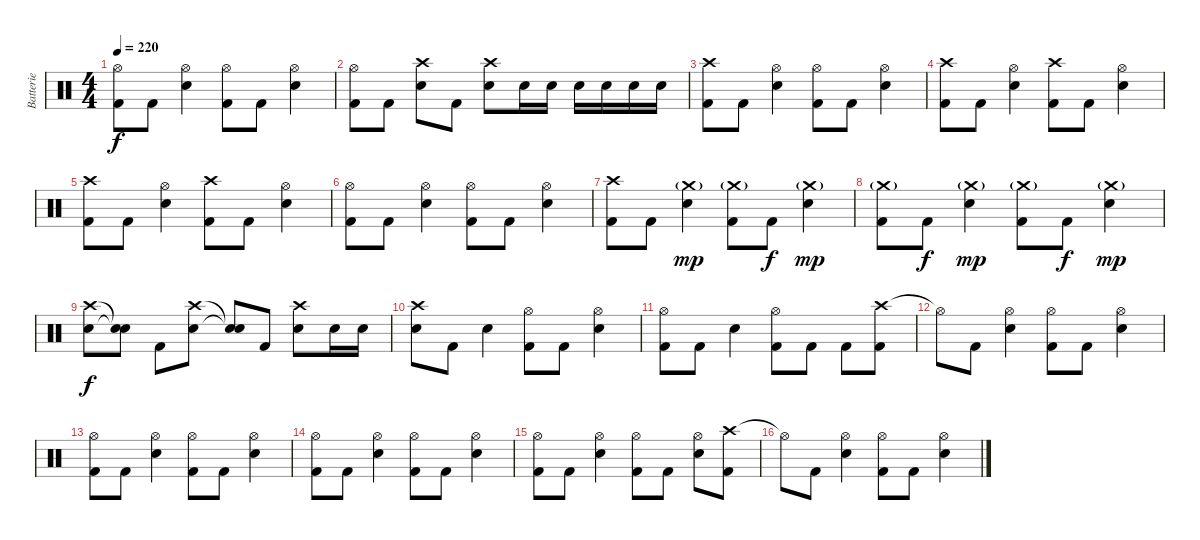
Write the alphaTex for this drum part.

\track ("Batterie" "Batterie") {instrument percussion}
\staff {score}
\articulation defaults
\ts (4 4)
\tempo 220
\clef neutral
\ks c
("Hi-Hat (open)" "Kick (hit) 2").8{dy f} "Kick (hit) 2".8 ("Hi-Hat (open)" "Electric Snare (hit)").4 ("Hi-Hat (open)" "Kick (hit) 2").8 "Kick (hit) 2".8 ("Hi-Hat (open)" "Electric Snare (hit)").4 |
("Hi-Hat (open)" "Kick (hit) 2").8 "Kick (hit) 2".8 ("Crash high (hit)" "Electric Snare (hit)").8 "Kick (hit) 2".8 ("Crash high (hit)" "Electric Snare (hit)").8 "Electric Snare (hit)".16 "Electric Snare (hit)".16 "Electric Snare (hit)".16 "Electric Snare (hit)".16 "Electric Snare (hit)".16 "Electric Snare (hit)".16 |
("Crash high (hit)" "Kick (hit) 2").8 "Kick (hit) 2".8 ("Hi-Hat (open)" "Electric Snare (hit)").4 ("Hi-Hat (open)" "Kick (hit) 2").8 "Kick (hit) 2".8 ("Hi-Hat (open)" "Electric Snare (hit)").4 |
("Crash high (hit)" "Kick (hit) 2").8 "Kick (hit) 2".8 ("Hi-Hat (open)" "Electric Snare (hit)").4 ("Crash high (hit)" "Kick (hit) 2").8 "Kick (hit) 2".8 ("Hi-Hat (open)" "Electric Snare (hit)").4 |
("Crash high (hit)" "Kick (hit) 2").8 "Kick (hit) 2".8 ("Hi-Hat (open)" "Electric Snare (hit)").4 ("Crash high (hit)" "Kick (hit) 2").8 "Kick (hit) 2".8 ("Hi-Hat (open)" "Electric Snare (hit)").4 |
("Hi-Hat (open)" "Kick (hit) 2").8 "Kick (hit) 2".8 ("Hi-Hat (open)" "Electric Snare (hit)").4 ("Hi-Hat (open)" "Kick (hit) 2").8 "Kick (hit) 2".8 ("Hi-Hat (open)" "Electric Snare (hit)").4 |
("Crash high (hit)" "Kick (hit) 2").8 "Kick (hit) 2".8 ("Crash medium (hit)"{g} "Electric Snare (hit)").4{dy mp} ("Crash medium (hit)"{g} "Kick (hit) 2").8 "Kick (hit) 2".8{dy f} ("Crash medium (hit)"{g} "Electric Snare (hit)").4{dy mp} |
("Crash medium (hit)"{g} "Kick (hit) 2").8 "Kick (hit) 2".8{dy f} ("Crash medium (hit)"{g} "Electric Snare (hit)").4{dy mp} ("Crash medium (hit)"{g} "Kick (hit) 2").8 "Kick (hit) 2".8{dy f} ("Crash medium (hit)"{g} "Electric Snare (hit)").4{dy mp} |
("Crash high (hit)" "Electric Snare (hit)").8{dy f} ("Snare (hit)"{t} "Snare (hit)"{t}).8 "Kick (hit) 2".8 ("Crash high (hit)" "Electric Snare (hit)").8 ("Snare (hit)"{t} "Snare (hit)"{t}).8 "Kick (hit) 2".8 ("Crash high (hit)" "Electric Snare (hit)").8 "Electric Snare (hit)".16 "Electric Snare (hit)".16 |
("Crash high (hit)" "Electric Snare (hit)").8 "Kick (hit) 2".8 "Electric Snare (hit)".4 ("Hi-Hat (open)" "Kick (hit) 2").8 "Kick (hit) 2".8 ("Hi-Hat (open)" "Electric Snare (hit)").4 |
("Hi-Hat (open)" "Kick (hit) 2").8 "Kick (hit) 2".8 "Electric Snare (hit)".4 ("Hi-Hat (open)" "Kick (hit) 2").8 "Kick (hit) 2".8 "Kick (hit) 2".8 ("Crash high (hit)" "Kick (hit) 2").8 |
"Hi-Hat (open)"{t}.8 "Kick (hit) 2".8 ("Hi-Hat (open)" "Electric Snare (hit)").4 ("Hi-Hat (open)" "Kick (hit) 2").8 "Kick (hit) 2".8 ("Hi-Hat (open)" "Electric Snare (hit)").4 |
("Hi-Hat (open)" "Kick (hit) 2").8 "Kick (hit) 2".8 ("Hi-Hat (open)" "Electric Snare (hit)").4 ("Hi-Hat (open)" "Kick (hit) 2").8 "Kick (hit) 2".8 ("Hi-Hat (open)" "Electric Snare (hit)").4 |
("Hi-Hat (open)" "Kick (hit) 2").8 "Kick (hit) 2".8 ("Hi-Hat (open)" "Electric Snare (hit)").4 ("Hi-Hat (open)" "Kick (hit) 2").8 "Kick (hit) 2".8 ("Hi-Hat (open)" "Electric Snare (hit)").4 |
("Hi-Hat (open)" "Kick (hit) 2").8 "Kick (hit) 2".8 ("Hi-Hat (open)" "Electric Snare (hit)").4 ("Hi-Hat (open)" "Kick (hit) 2").8 "Kick (hit) 2".8 ("Hi-Hat (open)" "Electric Snare (hit)").8 ("Crash high (hit)" "Kick (hit) 2").8 |
"Hi-Hat (open)"{t}.8 "Kick (hit) 2".8 ("Hi-Hat (open)" "Electric Snare (hit)").4 ("Hi-Hat (open)" "Kick (hit) 2").8 "Kick (hit) 2".8 ("Hi-Hat (open)" "Electric Snare (hit)").4
